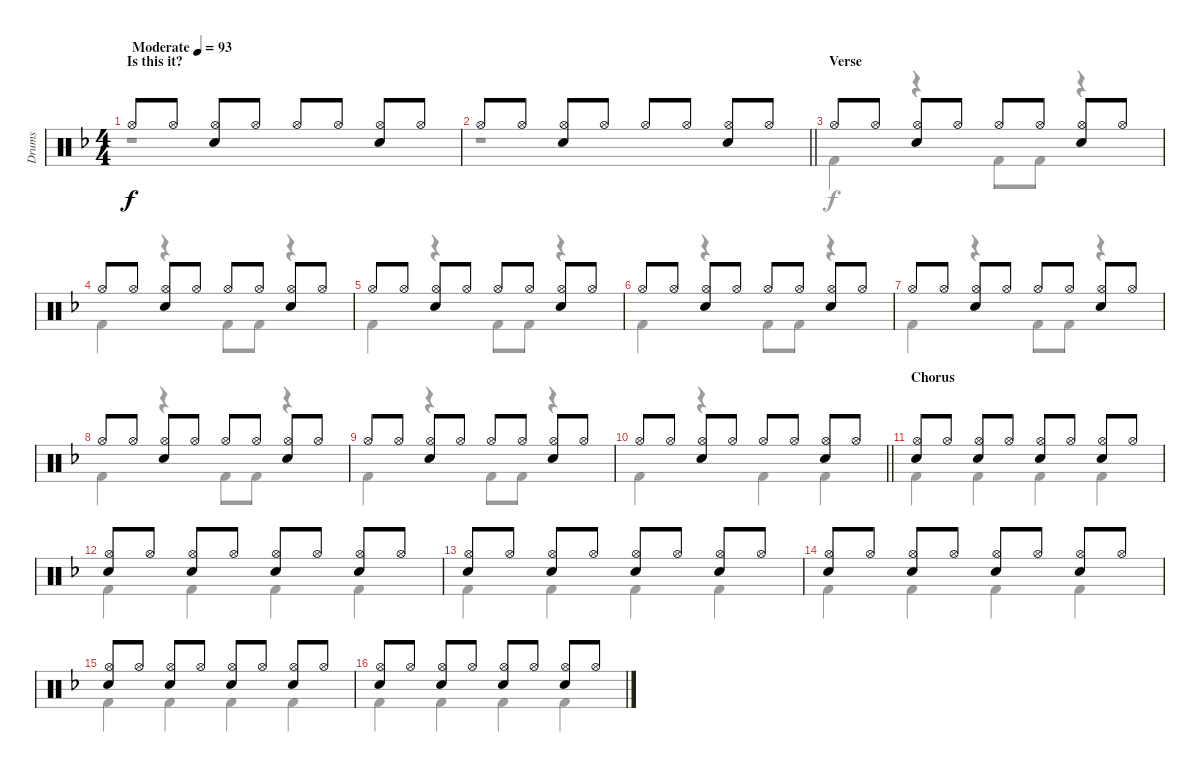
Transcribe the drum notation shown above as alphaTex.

\track ("Drums" "Drums") {instrument percussion}
\staff {score}
\articulation defaults
\voice
\ts (4 4)
\section ("" "Is this it?")
\tempo (93 "Moderate")
\clef neutral
\ks f "Hi-Hat (open)".8{dy f} "Hi-Hat (open)".8
("Hi-Hat (open)" "Electric Snare (hit)").8 "Hi-Hat (open)".8 "Hi-Hat (open)".8 "Hi-Hat (open)".8 ("Hi-Hat (open)" "Electric Snare (hit)").8 "Hi-Hat (open)".8 |
\barLineRight lightlight "Hi-Hat (open)".8 "Hi-Hat (open)".8
("Hi-Hat (open)" "Electric Snare (hit)").8 "Hi-Hat (open)".8 "Hi-Hat (open)".8 "Hi-Hat (open)".8 ("Hi-Hat (open)" "Electric Snare (hit)").8 "Hi-Hat (open)".8 |
\section ("" "Verse")
"Hi-Hat (open)".8 "Hi-Hat (open)".8 ("Hi-Hat (open)" "Electric Snare (hit)").8 "Hi-Hat (open)".8 "Hi-Hat (open)".8 "Hi-Hat (open)".8 ("Hi-Hat (open)" "Electric Snare (hit)").8 "Hi-Hat (open)".8 |
"Hi-Hat (open)".8 "Hi-Hat (open)".8 ("Hi-Hat (open)" "Electric Snare (hit)").8 "Hi-Hat (open)".8 "Hi-Hat (open)".8 "Hi-Hat (open)".8 ("Hi-Hat (open)" "Electric Snare (hit)").8 "Hi-Hat (open)".8 |
"Hi-Hat (open)".8 "Hi-Hat (open)".8 ("Hi-Hat (open)" "Electric Snare (hit)").8 "Hi-Hat (open)".8 "Hi-Hat (open)".8 "Hi-Hat (open)".8 ("Hi-Hat (open)" "Electric Snare (hit)").8 "Hi-Hat (open)".8 |
"Hi-Hat (open)".8 "Hi-Hat (open)".8 ("Hi-Hat (open)" "Electric Snare (hit)").8 "Hi-Hat (open)".8 "Hi-Hat (open)".8 "Hi-Hat (open)".8 ("Hi-Hat (open)" "Electric Snare (hit)").8 "Hi-Hat (open)".8 |
"Hi-Hat (open)".8 "Hi-Hat (open)".8 ("Hi-Hat (open)" "Electric Snare (hit)").8 "Hi-Hat (open)".8 "Hi-Hat (open)".8 "Hi-Hat (open)".8 ("Hi-Hat (open)" "Electric Snare (hit)").8 "Hi-Hat (open)".8 |
"Hi-Hat (open)".8 "Hi-Hat (open)".8 ("Hi-Hat (open)" "Electric Snare (hit)").8 "Hi-Hat (open)".8 "Hi-Hat (open)".8 "Hi-Hat (open)".8 ("Hi-Hat (open)" "Electric Snare (hit)").8 "Hi-Hat (open)".8 |
"Hi-Hat (open)".8 "Hi-Hat (open)".8 ("Hi-Hat (open)" "Electric Snare (hit)").8 "Hi-Hat (open)".8 "Hi-Hat (open)".8 "Hi-Hat (open)".8 ("Hi-Hat (open)" "Electric Snare (hit)").8 "Hi-Hat (open)".8 |
\barLineRight lightlight "Hi-Hat (open)".8 "Hi-Hat (open)".8
("Hi-Hat (open)" "Electric Snare (hit)").8 "Hi-Hat (open)".8 "Hi-Hat (open)".8 "Hi-Hat (open)".8 ("Hi-Hat (open)" "Electric Snare (hit)").8 "Hi-Hat (open)".8 |
\section ("" "Chorus")
("Hi-Hat (open)" "Electric Snare (hit)").8 "Hi-Hat (open)".8 ("Hi-Hat (open)" "Electric Snare (hit)").8 "Hi-Hat (open)".8 ("Hi-Hat (open)" "Electric Snare (hit)").8 "Hi-Hat (open)".8 ("Hi-Hat (open)" "Electric Snare (hit)").8 "Hi-Hat (open)".8 |
("Hi-Hat (open)" "Electric Snare (hit)").8 "Hi-Hat (open)".8 ("Hi-Hat (open)" "Electric Snare (hit)").8 "Hi-Hat (open)".8 ("Hi-Hat (open)" "Electric Snare (hit)").8 "Hi-Hat (open)".8 ("Hi-Hat (open)" "Electric Snare (hit)").8 "Hi-Hat (open)".8 |
("Hi-Hat (open)" "Electric Snare (hit)").8 "Hi-Hat (open)".8 ("Hi-Hat (open)" "Electric Snare (hit)").8 "Hi-Hat (open)".8 ("Hi-Hat (open)" "Electric Snare (hit)").8 "Hi-Hat (open)".8 ("Hi-Hat (open)" "Electric Snare (hit)").8 "Hi-Hat (open)".8 |
("Hi-Hat (open)" "Electric Snare (hit)").8 "Hi-Hat (open)".8 ("Hi-Hat (open)" "Electric Snare (hit)").8 "Hi-Hat (open)".8 ("Hi-Hat (open)" "Electric Snare (hit)").8 "Hi-Hat (open)".8 ("Hi-Hat (open)" "Electric Snare (hit)").8 "Hi-Hat (open)".8 |
("Hi-Hat (open)" "Electric Snare (hit)").8 "Hi-Hat (open)".8 ("Hi-Hat (open)" "Electric Snare (hit)").8 "Hi-Hat (open)".8 ("Hi-Hat (open)" "Electric Snare (hit)").8 "Hi-Hat (open)".8 ("Hi-Hat (open)" "Electric Snare (hit)").8 "Hi-Hat (open)".8 |
("Hi-Hat (open)" "Electric Snare (hit)").8 "Hi-Hat (open)".8 ("Hi-Hat (open)" "Electric Snare (hit)").8 "Hi-Hat (open)".8 ("Hi-Hat (open)" "Electric Snare (hit)").8 "Hi-Hat (open)".8 ("Hi-Hat (open)" "Electric Snare (hit)").8 "Hi-Hat (open)".8
\voice
\clef neutral
\ottava regular
\simile none
\ks f
r.1{dy f} |
\barLineRight lightlight
r.1 |
"Kick (hit) 2".4 r.4 "Kick (hit) 2".8 "Kick (hit) 2".8 r.4 |
"Kick (hit) 2".4 r.4 "Kick (hit) 2".8 "Kick (hit) 2".8 r.4 |
"Kick (hit) 2".4 r.4 "Kick (hit) 2".8 "Kick (hit) 2".8 r.4 |
"Kick (hit) 2".4 r.4 "Kick (hit) 2".8 "Kick (hit) 2".8 r.4 |
"Kick (hit) 2".4 r.4 "Kick (hit) 2".8 "Kick (hit) 2".8 r.4 |
"Kick (hit) 2".4 r.4 "Kick (hit) 2".8 "Kick (hit) 2".8 r.4 |
"Kick (hit) 2".4 r.4 "Kick (hit) 2".8 "Kick (hit) 2".8 r.4 |
\barLineRight lightlight "Kick (hit) 2".4
r.4 "Kick (hit) 2".4 "Kick (hit) 2".4 |
"Kick (hit) 2".4 "Kick (hit) 2".4 "Kick (hit) 2".4 "Kick (hit) 2".4 |
"Kick (hit) 2".4 "Kick (hit) 2".4 "Kick (hit) 2".4 "Kick (hit) 2".4 |
"Kick (hit) 2".4 "Kick (hit) 2".4 "Kick (hit) 2".4 "Kick (hit) 2".4 |
"Kick (hit) 2".4 "Kick (hit) 2".4 "Kick (hit) 2".4 "Kick (hit) 2".4 |
"Kick (hit) 2".4 "Kick (hit) 2".4 "Kick (hit) 2".4 "Kick (hit) 2".4 |
"Kick (hit) 2".4 "Kick (hit) 2".4 "Kick (hit) 2".4 "Kick (hit) 2".4
